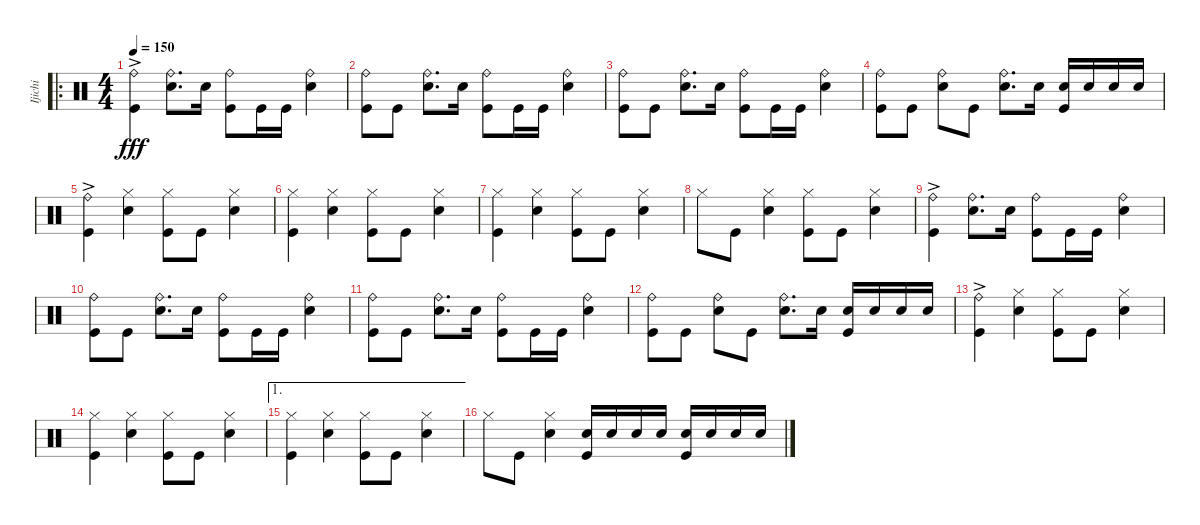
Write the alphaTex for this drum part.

\track ("Ijichi" "Ijichi") {instrument percussion}
\staff {score}
\articulation defaults
\ro
\ts (4 4)
\tempo 150
\clef neutral
\ks c
("Ride (bell)"{ac} "Kick (hit)").4{dy fff} ("Ride (bell)" "Snare (hit) 2").8{d} "Snare (hit) 2".16 ("Ride (bell)" "Kick (hit)").8 "Kick (hit)".16 "Kick (hit)".16 ("Ride (bell)" "Snare (hit) 2").4 |
("Ride (bell)" "Kick (hit)").8 "Kick (hit)".8 ("Ride (bell)" "Snare (hit) 2").8{d} "Snare (hit) 2".16 ("Ride (bell)" "Kick (hit)").8 "Kick (hit)".16 "Kick (hit)".16 ("Ride (bell)" "Snare (hit) 2").4 |
("Ride (bell)" "Kick (hit)").8 "Kick (hit)".8 ("Ride (bell)" "Snare (hit) 2").8{d} "Snare (hit) 2".16 ("Ride (bell)" "Kick (hit)").8 "Kick (hit)".16 "Kick (hit)".16 ("Ride (bell)" "Snare (hit) 2").4 |
("Ride (bell)" "Kick (hit)").8 "Kick (hit)".8 ("Ride (bell)" "Snare (hit) 2").8 "Kick (hit)".8 ("Ride (bell)" "Snare (hit) 2").8{d} "Snare (hit) 2".16 ("Snare (hit) 2" "Kick (hit)").16 "Snare (hit) 2".16 "Snare (hit) 2".16 "Snare (hit) 2".16 |
("Ride (bell)"{ac} "Kick (hit)").4 ("Hi-Hat (closed)" "Snare (hit) 2").4 ("Hi-Hat (closed)" "Kick (hit)").8 "Kick (hit)".8 ("Hi-Hat (closed)" "Snare (hit) 2").4 |
("Hi-Hat (closed)" "Kick (hit)").4 ("Hi-Hat (closed)" "Snare (hit) 2").4 ("Hi-Hat (closed)" "Kick (hit)").8 "Kick (hit)".8 ("Hi-Hat (closed)" "Snare (hit) 2").4 |
("Hi-Hat (closed)" "Kick (hit)").4 ("Hi-Hat (closed)" "Snare (hit) 2").4 ("Hi-Hat (closed)" "Kick (hit)").8 "Kick (hit)".8 ("Hi-Hat (closed)" "Snare (hit) 2").4 |
"Hi-Hat (closed)".8 "Kick (hit)".8 ("Hi-Hat (closed)" "Snare (hit) 2").4 ("Hi-Hat (closed)" "Kick (hit)").8 "Kick (hit)".8 ("Hi-Hat (closed)" "Snare (hit) 2").4 |
("Ride (bell)"{ac} "Kick (hit)").4 ("Ride (bell)" "Snare (hit) 2").8{d} "Snare (hit) 2".16 ("Ride (bell)" "Kick (hit)").8 "Kick (hit)".16 "Kick (hit)".16 ("Ride (bell)" "Snare (hit) 2").4 |
("Ride (bell)" "Kick (hit)").8 "Kick (hit)".8 ("Ride (bell)" "Snare (hit) 2").8{d} "Snare (hit) 2".16 ("Ride (bell)" "Kick (hit)").8 "Kick (hit)".16 "Kick (hit)".16 ("Ride (bell)" "Snare (hit) 2").4 |
("Ride (bell)" "Kick (hit)").8 "Kick (hit)".8 ("Ride (bell)" "Snare (hit) 2").8{d} "Snare (hit) 2".16 ("Ride (bell)" "Kick (hit)").8 "Kick (hit)".16 "Kick (hit)".16 ("Ride (bell)" "Snare (hit) 2").4 |
("Ride (bell)" "Kick (hit)").8 "Kick (hit)".8 ("Ride (bell)" "Snare (hit) 2").8 "Kick (hit)".8 ("Ride (bell)" "Snare (hit) 2").8{d} "Snare (hit) 2".16 ("Snare (hit) 2" "Kick (hit)").16 "Snare (hit) 2".16 "Snare (hit) 2".16 "Snare (hit) 2".16 |
("Ride (bell)"{ac} "Kick (hit)").4 ("Hi-Hat (closed)" "Snare (hit) 2").4 ("Hi-Hat (closed)" "Kick (hit)").8 "Kick (hit)".8 ("Hi-Hat (closed)" "Snare (hit) 2").4 |
("Hi-Hat (closed)" "Kick (hit)").4 ("Hi-Hat (closed)" "Snare (hit) 2").4 ("Hi-Hat (closed)" "Kick (hit)").8 "Kick (hit)".8 ("Hi-Hat (closed)" "Snare (hit) 2").4 |
\ae 1
("Hi-Hat (closed)" "Kick (hit)").4 ("Hi-Hat (closed)" "Snare (hit) 2").4 ("Hi-Hat (closed)" "Kick (hit)").8 "Kick (hit)".8 ("Hi-Hat (closed)" "Snare (hit) 2").4 |
"Hi-Hat (closed)".8 "Kick (hit)".8 ("Hi-Hat (closed)" "Snare (hit) 2").4 ("Snare (hit) 2" "Kick (hit)").16 "Snare (hit) 2".16 "Snare (hit) 2".16 "Snare (hit) 2".16 ("Snare (hit) 2" "Kick (hit)").16 "Snare (hit) 2".16 "Snare (hit) 2".16 "Snare (hit) 2".16
